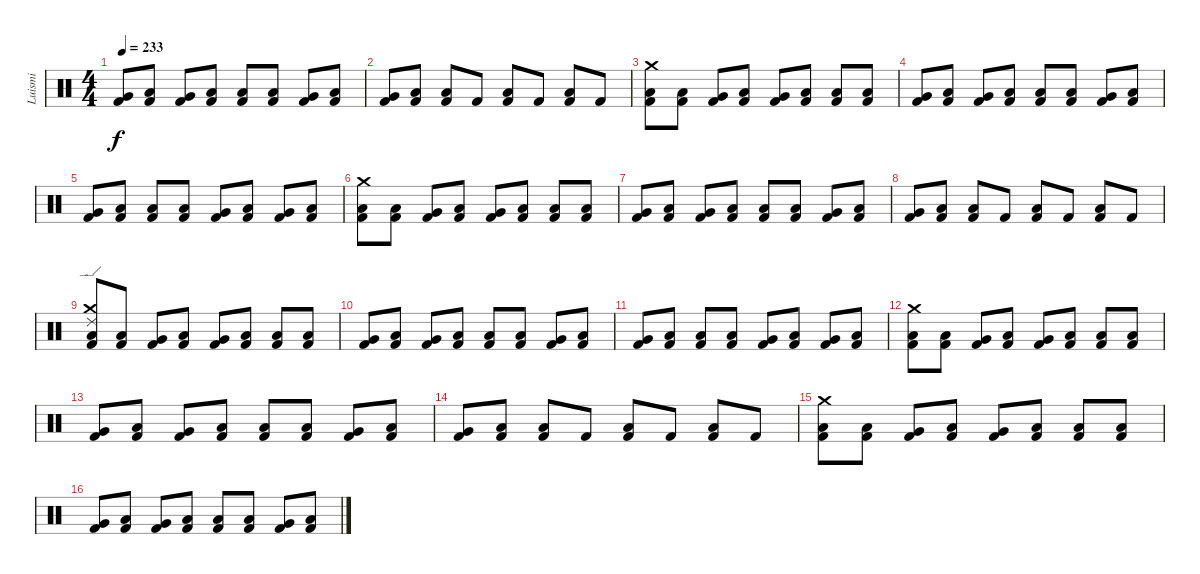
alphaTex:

\track ("Luismi" "Luismi") {instrument percussion}
\staff {score}
\articulation defaults
\ts (4 4)
\tempo 233
\clef neutral
\ks c
("Very Low Tom (hit)" "Kick (hit) 2").8{dy f} ("Low Floor Tom (hit)" "Kick (hit) 2").8 ("Very Low Tom (hit)" "Kick (hit) 2").8 ("Low Floor Tom (hit)" "Kick (hit) 2").8 ("Low Tom (hit)" "Kick (hit) 2").8 ("Low Floor Tom (hit)" "Kick (hit) 2").8 ("Very Low Tom (hit)" "Kick (hit) 2").8 ("Low Floor Tom (hit)" "Kick (hit) 2").8 |
("Very Low Tom (hit)" "Kick (hit) 2").8 ("Low Floor Tom (hit)" "Kick (hit) 2").8 ("Low Tom (hit)" "Kick (hit) 2").8 "Kick (hit) 2".8 ("Low Tom (hit)" "Kick (hit) 2").8 "Kick (hit) 2".8 ("Low Tom (hit)" "Kick (hit) 2").8 "Kick (hit) 2".8 |
("Crash medium (hit)" "Low Tom (hit)" "Kick (hit) 2").8 ("Low Floor Tom (hit)" "Kick (hit) 2").8 ("Very Low Tom (hit)" "Kick (hit) 2").8 ("Low Floor Tom (hit)" "Kick (hit) 2").8 ("Very Low Tom (hit)" "Kick (hit) 2").8 ("Low Floor Tom (hit)" "Kick (hit) 2").8 ("Low Tom (hit)" "Kick (hit) 2").8 ("Low Floor Tom (hit)" "Kick (hit) 2").8 |
("Very Low Tom (hit)" "Kick (hit) 2").8 ("Low Floor Tom (hit)" "Kick (hit) 2").8 ("Very Low Tom (hit)" "Kick (hit) 2").8 ("Low Floor Tom (hit)" "Kick (hit) 2").8 ("Low Tom (hit)" "Kick (hit) 2").8 ("Low Floor Tom (hit)" "Kick (hit) 2").8 ("Very Low Tom (hit)" "Kick (hit) 2").8 ("Low Floor Tom (hit)" "Kick (hit) 2").8 |
("Very Low Tom (hit)" "Kick (hit) 2").8 ("Low Floor Tom (hit)" "Kick (hit) 2").8 ("Low Tom (hit)" "Kick (hit) 2").8 ("Low Floor Tom (hit)" "Kick (hit) 2").8 ("Very Low Tom (hit)" "Kick (hit) 2").8 ("Low Floor Tom (hit)" "Kick (hit) 2").8 ("Very Low Tom (hit)" "Kick (hit) 2").8 ("Low Floor Tom (hit)" "Kick (hit) 2").8 |
("Crash medium (hit)" "Low Tom (hit)" "Kick (hit) 2").8 ("Low Floor Tom (hit)" "Kick (hit) 2").8 ("Very Low Tom (hit)" "Kick (hit) 2").8 ("Low Floor Tom (hit)" "Kick (hit) 2").8 ("Very Low Tom (hit)" "Kick (hit) 2").8 ("Low Floor Tom (hit)" "Kick (hit) 2").8 ("Low Tom (hit)" "Kick (hit) 2").8 ("Low Floor Tom (hit)" "Kick (hit) 2").8 |
("Very Low Tom (hit)" "Kick (hit) 2").8 ("Low Floor Tom (hit)" "Kick (hit) 2").8 ("Very Low Tom (hit)" "Kick (hit) 2").8 ("Low Floor Tom (hit)" "Kick (hit) 2").8 ("Low Tom (hit)" "Kick (hit) 2").8 ("Low Floor Tom (hit)" "Kick (hit) 2").8 ("Very Low Tom (hit)" "Kick (hit) 2").8 ("Low Floor Tom (hit)" "Kick (hit) 2").8 |
("Very Low Tom (hit)" "Kick (hit) 2").8 ("Low Floor Tom (hit)" "Kick (hit) 2").8 ("Low Tom (hit)" "Kick (hit) 2").8 "Kick (hit) 2".8 ("Low Tom (hit)" "Kick (hit) 2").8 "Kick (hit) 2".8 ("Low Tom (hit)" "Kick (hit) 2").8 "Kick (hit) 2".8 |
("Crash medium (hit)" "Ride (edge) 2" "Low Tom (hit)" "Kick (hit) 2").8 ("Low Floor Tom (hit)" "Kick (hit) 2").8 ("Very Low Tom (hit)" "Kick (hit) 2").8 ("Low Floor Tom (hit)" "Kick (hit) 2").8 ("Very Low Tom (hit)" "Kick (hit) 2").8 ("Low Floor Tom (hit)" "Kick (hit) 2").8 ("Low Tom (hit)" "Kick (hit) 2").8 ("Low Floor Tom (hit)" "Kick (hit) 2").8 |
("Very Low Tom (hit)" "Kick (hit) 2").8 ("Low Floor Tom (hit)" "Kick (hit) 2").8 ("Very Low Tom (hit)" "Kick (hit) 2").8 ("Low Floor Tom (hit)" "Kick (hit) 2").8 ("Low Tom (hit)" "Kick (hit) 2").8 ("Low Floor Tom (hit)" "Kick (hit) 2").8 ("Very Low Tom (hit)" "Kick (hit) 2").8 ("Low Floor Tom (hit)" "Kick (hit) 2").8 |
("Very Low Tom (hit)" "Kick (hit) 2").8 ("Low Floor Tom (hit)" "Kick (hit) 2").8 ("Low Tom (hit)" "Kick (hit) 2").8 ("Low Floor Tom (hit)" "Kick (hit) 2").8 ("Very Low Tom (hit)" "Kick (hit) 2").8 ("Low Floor Tom (hit)" "Kick (hit) 2").8 ("Very Low Tom (hit)" "Kick (hit) 2").8 ("Low Floor Tom (hit)" "Kick (hit) 2").8 |
("Crash medium (hit)" "Low Tom (hit)" "Kick (hit) 2").8 ("Low Floor Tom (hit)" "Kick (hit) 2").8 ("Very Low Tom (hit)" "Kick (hit) 2").8 ("Low Floor Tom (hit)" "Kick (hit) 2").8 ("Very Low Tom (hit)" "Kick (hit) 2").8 ("Low Floor Tom (hit)" "Kick (hit) 2").8 ("Low Tom (hit)" "Kick (hit) 2").8 ("Low Floor Tom (hit)" "Kick (hit) 2").8 |
("Very Low Tom (hit)" "Kick (hit) 2").8 ("Low Floor Tom (hit)" "Kick (hit) 2").8 ("Very Low Tom (hit)" "Kick (hit) 2").8 ("Low Floor Tom (hit)" "Kick (hit) 2").8 ("Low Tom (hit)" "Kick (hit) 2").8 ("Low Floor Tom (hit)" "Kick (hit) 2").8 ("Very Low Tom (hit)" "Kick (hit) 2").8 ("Low Floor Tom (hit)" "Kick (hit) 2").8 |
("Very Low Tom (hit)" "Kick (hit) 2").8 ("Low Floor Tom (hit)" "Kick (hit) 2").8 ("Low Tom (hit)" "Kick (hit) 2").8 "Kick (hit) 2".8 ("Low Tom (hit)" "Kick (hit) 2").8 "Kick (hit) 2".8 ("Low Tom (hit)" "Kick (hit) 2").8 "Kick (hit) 2".8 |
("Crash medium (hit)" "Low Tom (hit)" "Kick (hit) 2").8 ("Low Floor Tom (hit)" "Kick (hit) 2").8 ("Very Low Tom (hit)" "Kick (hit) 2").8 ("Low Floor Tom (hit)" "Kick (hit) 2").8 ("Very Low Tom (hit)" "Kick (hit) 2").8 ("Low Floor Tom (hit)" "Kick (hit) 2").8 ("Low Tom (hit)" "Kick (hit) 2").8 ("Low Floor Tom (hit)" "Kick (hit) 2").8 |
("Very Low Tom (hit)" "Kick (hit) 2").8 ("Low Floor Tom (hit)" "Kick (hit) 2").8 ("Very Low Tom (hit)" "Kick (hit) 2").8 ("Low Floor Tom (hit)" "Kick (hit) 2").8 ("Low Tom (hit)" "Kick (hit) 2").8 ("Low Floor Tom (hit)" "Kick (hit) 2").8 ("Very Low Tom (hit)" "Kick (hit) 2").8 ("Low Floor Tom (hit)" "Kick (hit) 2").8
